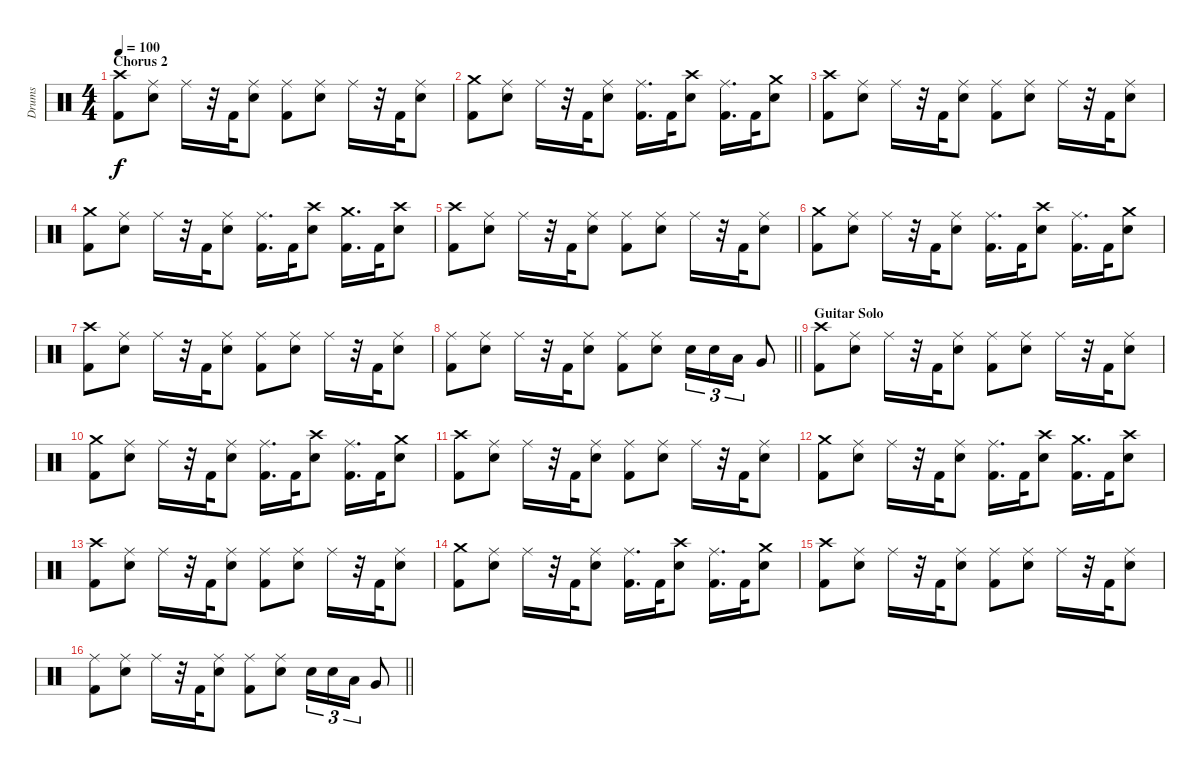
\track ("Drums" "Drums") {instrument percussion}
\staff {score}
\articulation defaults
\ts (4 4)
\section ("" "Chorus 2")
\tempo 100
\clef neutral
\ks c
("Crash high (hit)" "Kick (hit) 2").8{dy f} ("Ride (middle)" "Snare (hit) 2").8 "Ride (middle)".16 r.32 "Kick (hit) 2".32 ("Ride (middle)" "Snare (hit) 2").8 ("Ride (middle)" "Kick (hit) 2").8 ("Ride (middle)" "Snare (hit) 2").8 "Ride (middle)".16 r.32 "Kick (hit) 2".32 ("Ride (middle)" "Snare (hit) 2").8 |
("Crash medium (hit)" "Kick (hit) 2").8 ("Ride (middle)" "Snare (hit) 2").8 "Ride (middle)".16 r.32 "Kick (hit) 2".32 ("Ride (middle)" "Snare (hit) 2").8 ("Ride (middle)" "Kick (hit) 2").16{d} "Kick (hit) 2".32 ("Crash high (hit)" "Snare (hit) 2").8 ("Ride (middle)" "Kick (hit) 2").16{d} "Kick (hit) 2".32 ("Crash medium (hit)" "Snare (hit) 2").8 |
("Crash high (hit)" "Kick (hit) 2").8 ("Ride (middle)" "Snare (hit) 2").8 "Ride (middle)".16 r.32 "Kick (hit) 2".32 ("Ride (middle)" "Snare (hit) 2").8 ("Ride (middle)" "Kick (hit) 2").8 ("Ride (middle)" "Snare (hit) 2").8 "Ride (middle)".16 r.32 "Kick (hit) 2".32 ("Ride (middle)" "Snare (hit) 2").8 |
("Crash medium (hit)" "Kick (hit) 2").8 ("Ride (middle)" "Snare (hit) 2").8 "Ride (middle)".16 r.32 "Kick (hit) 2".32 ("Ride (middle)" "Snare (hit) 2").8 ("Ride (middle)" "Kick (hit) 2").16{d} "Kick (hit) 2".32 ("Crash high (hit)" "Snare (hit) 2").8 ("Crash medium (hit)" "Kick (hit) 2").16{d} "Kick (hit) 2".32 ("Crash high (hit)" "Snare (hit) 2").8 |
("Crash high (hit)" "Kick (hit) 2").8 ("Ride (middle)" "Snare (hit) 2").8 "Ride (middle)".16 r.32 "Kick (hit) 2".32 ("Ride (middle)" "Snare (hit) 2").8 ("Ride (middle)" "Kick (hit) 2").8 ("Ride (middle)" "Snare (hit) 2").8 "Ride (middle)".16 r.32 "Kick (hit) 2".32 ("Ride (middle)" "Snare (hit) 2").8 |
("Crash medium (hit)" "Kick (hit) 2").8 ("Ride (middle)" "Snare (hit) 2").8 "Ride (middle)".16 r.32 "Kick (hit) 2".32 ("Ride (middle)" "Snare (hit) 2").8 ("Ride (middle)" "Kick (hit) 2").16{d} "Kick (hit) 2".32 ("Crash high (hit)" "Snare (hit) 2").8 ("Ride (middle)" "Kick (hit) 2").16{d} "Kick (hit) 2".32 ("Crash medium (hit)" "Snare (hit) 2").8 |
("Crash high (hit)" "Kick (hit) 2").8 ("Ride (middle)" "Snare (hit) 2").8 "Ride (middle)".16 r.32 "Kick (hit) 2".32 ("Ride (middle)" "Snare (hit) 2").8 ("Ride (middle)" "Kick (hit) 2").8 ("Ride (middle)" "Snare (hit) 2").8 "Ride (middle)".16 r.32 "Kick (hit) 2".32 ("Ride (middle)" "Snare (hit) 2").8 |
\barLineRight lightlight
("Ride (middle)" "Kick (hit) 2").8 ("Ride (middle)" "Snare (hit) 2").8 "Ride (middle)".16 r.32 "Kick (hit) 2".32 ("Ride (middle)" "Snare (hit) 2").8 ("Ride (middle)" "Kick (hit) 2").8 ("Ride (middle)" "Snare (hit) 2").8 "Snare (hit) 2".16{tu (3 2)} "Snare (hit) 2".16{tu (3 2)} "Low Tom (hit)".16{tu (3 2)} "Very Low Tom (hit)".8 |
\section ("" "Guitar Solo")
("Crash high (hit)" "Kick (hit) 2").8 ("Ride (middle)" "Snare (hit) 2").8 "Ride (middle)".16 r.32 "Kick (hit) 2".32 ("Ride (middle)" "Snare (hit) 2").8 ("Ride (middle)" "Kick (hit) 2").8 ("Ride (middle)" "Snare (hit) 2").8 "Ride (middle)".16 r.32 "Kick (hit) 2".32 ("Ride (middle)" "Snare (hit) 2").8 |
("Crash medium (hit)" "Kick (hit) 2").8 ("Ride (middle)" "Snare (hit) 2").8 "Ride (middle)".16 r.32 "Kick (hit) 2".32 ("Ride (middle)" "Snare (hit) 2").8 ("Ride (middle)" "Kick (hit) 2").16{d} "Kick (hit) 2".32 ("Crash high (hit)" "Snare (hit) 2").8 ("Ride (middle)" "Kick (hit) 2").16{d} "Kick (hit) 2".32 ("Crash medium (hit)" "Snare (hit) 2").8 |
("Crash high (hit)" "Kick (hit) 2").8 ("Ride (middle)" "Snare (hit) 2").8 "Ride (middle)".16 r.32 "Kick (hit) 2".32 ("Ride (middle)" "Snare (hit) 2").8 ("Ride (middle)" "Kick (hit) 2").8 ("Ride (middle)" "Snare (hit) 2").8 "Ride (middle)".16 r.32 "Kick (hit) 2".32 ("Ride (middle)" "Snare (hit) 2").8 |
("Crash medium (hit)" "Kick (hit) 2").8 ("Ride (middle)" "Snare (hit) 2").8 "Ride (middle)".16 r.32 "Kick (hit) 2".32 ("Ride (middle)" "Snare (hit) 2").8 ("Ride (middle)" "Kick (hit) 2").16{d} "Kick (hit) 2".32 ("Crash high (hit)" "Snare (hit) 2").8 ("Crash medium (hit)" "Kick (hit) 2").16{d} "Kick (hit) 2".32 ("Crash high (hit)" "Snare (hit) 2").8 |
("Crash high (hit)" "Kick (hit) 2").8 ("Ride (middle)" "Snare (hit) 2").8 "Ride (middle)".16 r.32 "Kick (hit) 2".32 ("Ride (middle)" "Snare (hit) 2").8 ("Ride (middle)" "Kick (hit) 2").8 ("Ride (middle)" "Snare (hit) 2").8 "Ride (middle)".16 r.32 "Kick (hit) 2".32 ("Ride (middle)" "Snare (hit) 2").8 |
("Crash medium (hit)" "Kick (hit) 2").8 ("Ride (middle)" "Snare (hit) 2").8 "Ride (middle)".16 r.32 "Kick (hit) 2".32 ("Ride (middle)" "Snare (hit) 2").8 ("Ride (middle)" "Kick (hit) 2").16{d} "Kick (hit) 2".32 ("Crash high (hit)" "Snare (hit) 2").8 ("Ride (middle)" "Kick (hit) 2").16{d} "Kick (hit) 2".32 ("Crash medium (hit)" "Snare (hit) 2").8 |
("Crash high (hit)" "Kick (hit) 2").8 ("Ride (middle)" "Snare (hit) 2").8 "Ride (middle)".16 r.32 "Kick (hit) 2".32 ("Ride (middle)" "Snare (hit) 2").8 ("Ride (middle)" "Kick (hit) 2").8 ("Ride (middle)" "Snare (hit) 2").8 "Ride (middle)".16 r.32 "Kick (hit) 2".32 ("Ride (middle)" "Snare (hit) 2").8 |
\barLineRight lightlight
("Ride (middle)" "Kick (hit) 2").8 ("Ride (middle)" "Snare (hit) 2").8 "Ride (middle)".16 r.32 "Kick (hit) 2".32 ("Ride (middle)" "Snare (hit) 2").8 ("Ride (middle)" "Kick (hit) 2").8 ("Ride (middle)" "Snare (hit) 2").8 "Snare (hit) 2".16{tu (3 2)} "Snare (hit) 2".16{tu (3 2)} "Low Tom (hit)".16{tu (3 2)} "Very Low Tom (hit)".8
